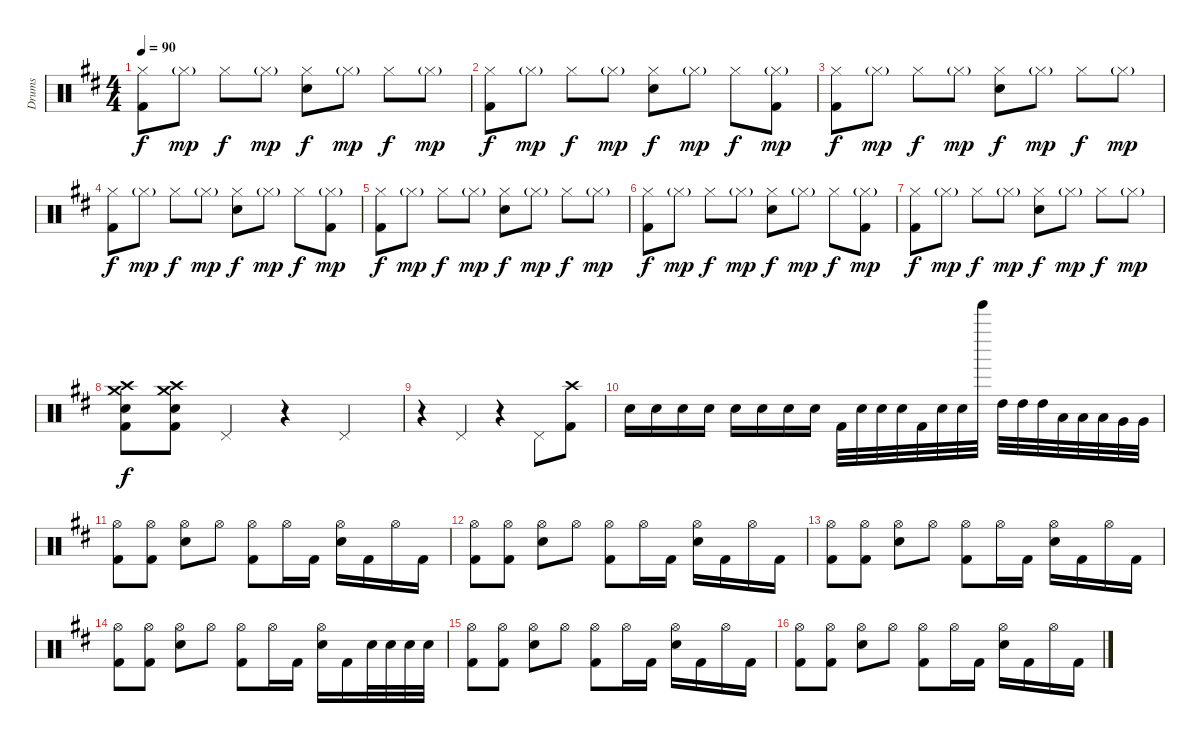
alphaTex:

\track ("Drums" "Drums") {instrument percussion}
\staff {score}
\articulation defaults
\ts (4 4)
\tempo 90
\clef neutral
\ks bminor
("Hi-Hat (closed)" "Kick (hit) 2").8{dy f} "Hi-Hat (closed)"{g}.8{dy mp} "Hi-Hat (closed)".8{dy f} "Hi-Hat (closed)"{g}.8{dy mp} ("Hi-Hat (closed)" "Snare (hit) 2").8{dy f} "Hi-Hat (closed)"{g}.8{dy mp} "Hi-Hat (closed)".8{dy f} "Hi-Hat (closed)"{g}.8{dy mp} |
("Hi-Hat (closed)" "Kick (hit) 2").8{dy f} "Hi-Hat (closed)"{g}.8{dy mp} "Hi-Hat (closed)".8{dy f} "Hi-Hat (closed)"{g}.8{dy mp} ("Hi-Hat (closed)" "Snare (hit) 2").8{dy f} "Hi-Hat (closed)"{g}.8{dy mp} "Hi-Hat (closed)".8{dy f} ("Hi-Hat (closed)"{g} "Kick (hit) 2").8{dy mp} |
("Hi-Hat (closed)" "Kick (hit) 2").8{dy f} "Hi-Hat (closed)"{g}.8{dy mp} "Hi-Hat (closed)".8{dy f} "Hi-Hat (closed)"{g}.8{dy mp} ("Hi-Hat (closed)" "Snare (hit) 2").8{dy f} "Hi-Hat (closed)"{g}.8{dy mp} "Hi-Hat (closed)".8{dy f} "Hi-Hat (closed)"{g}.8{dy mp} |
("Hi-Hat (closed)" "Kick (hit) 2").8{dy f} "Hi-Hat (closed)"{g}.8{dy mp} "Hi-Hat (closed)".8{dy f} "Hi-Hat (closed)"{g}.8{dy mp} ("Hi-Hat (closed)" "Snare (hit) 2").8{dy f} "Hi-Hat (closed)"{g}.8{dy mp} "Hi-Hat (closed)".8{dy f} ("Hi-Hat (closed)"{g} "Kick (hit) 2").8{dy mp} |
("Hi-Hat (closed)" "Kick (hit) 2").8{dy f} "Hi-Hat (closed)"{g}.8{dy mp} "Hi-Hat (closed)".8{dy f} "Hi-Hat (closed)"{g}.8{dy mp} ("Hi-Hat (closed)" "Snare (hit) 2").8{dy f} "Hi-Hat (closed)"{g}.8{dy mp} "Hi-Hat (closed)".8{dy f} "Hi-Hat (closed)"{g}.8{dy mp} |
("Hi-Hat (closed)" "Kick (hit) 2").8{dy f} "Hi-Hat (closed)"{g}.8{dy mp} "Hi-Hat (closed)".8{dy f} "Hi-Hat (closed)"{g}.8{dy mp} ("Hi-Hat (closed)" "Snare (hit) 2").8{dy f} "Hi-Hat (closed)"{g}.8{dy mp} "Hi-Hat (closed)".8{dy f} ("Hi-Hat (closed)"{g} "Kick (hit) 2").8{dy mp} |
("Hi-Hat (closed)" "Kick (hit) 2").8{dy f} "Hi-Hat (closed)"{g}.8{dy mp} "Hi-Hat (closed)".8{dy f} "Hi-Hat (closed)"{g}.8{dy mp} ("Hi-Hat (closed)" "Snare (hit) 2").8{dy f} "Hi-Hat (closed)"{g}.8{dy mp} "Hi-Hat (closed)".8{dy f} "Hi-Hat (closed)"{g}.8{dy mp} |
("Crash high (hit)" "Crash medium (hit)" "Snare (hit) 2" "Kick (hit) 2").8{dy f} ("Crash high (hit)" "Crash medium (hit)" "Snare (hit) 2" "Kick (hit) 2").8 "Pedal Hi-Hat (hit)".4 r.4 "Pedal Hi-Hat (hit)".4 |
r.4 "Pedal Hi-Hat (hit)".4 r.4 "Pedal Hi-Hat (hit)".8 ("Crash high (hit)" "Kick (hit) 2").8 |
"Snare (hit) 2".16 "Snare (hit) 2".16 "Snare (hit) 2".16 "Snare (hit) 2".16 "Snare (hit) 2".16 "Snare (hit) 2".16 "Snare (hit) 2".16 "Snare (hit) 2".16 "Kick (hit) 2".32 "Snare (hit) 2".32 "Snare (hit) 2".32 "Snare (hit) 2".32 "Kick (hit) 2".32 "Snare (hit) 2".32 "Snare (hit) 2".32 "Tinkle Bell (hit)".32 "High Tom (hit)".32 "High Tom (hit)".32 "High Tom (hit)".32 "Low Tom (hit)".32 "Low Tom (hit)".32 "Low Tom (hit)".32 "Very Low Tom (hit)".32 "Very Low Tom (hit)".32 |
("Hi-Hat (open)" "Kick (hit) 2").8 ("Hi-Hat (open)" "Kick (hit) 2").8 ("Hi-Hat (open)" "Snare (hit) 2").8 "Hi-Hat (open)".8 ("Hi-Hat (open)" "Kick (hit) 2").8 "Hi-Hat (open)".16 "Kick (hit) 2".16 ("Hi-Hat (open)" "Snare (hit) 2").16 "Kick (hit) 2".16 "Hi-Hat (open)".16 "Kick (hit) 2".16 |
("Hi-Hat (open)" "Kick (hit) 2").8 ("Hi-Hat (open)" "Kick (hit) 2").8 ("Hi-Hat (open)" "Snare (hit) 2").8 "Hi-Hat (open)".8 ("Hi-Hat (open)" "Kick (hit) 2").8 "Hi-Hat (open)".16 "Kick (hit) 2".16 ("Hi-Hat (open)" "Snare (hit) 2").16 "Kick (hit) 2".16 "Hi-Hat (open)".16 "Kick (hit) 2".16 |
("Hi-Hat (open)" "Kick (hit) 2").8 ("Hi-Hat (open)" "Kick (hit) 2").8 ("Hi-Hat (open)" "Snare (hit) 2").8 "Hi-Hat (open)".8 ("Hi-Hat (open)" "Kick (hit) 2").8 "Hi-Hat (open)".16 "Kick (hit) 2".16 ("Hi-Hat (open)" "Snare (hit) 2").16 "Kick (hit) 2".16 "Hi-Hat (open)".16 "Kick (hit) 2".16 |
("Hi-Hat (open)" "Kick (hit) 2").8 ("Hi-Hat (open)" "Kick (hit) 2").8 ("Hi-Hat (open)" "Snare (hit) 2").8 "Hi-Hat (open)".8 ("Hi-Hat (open)" "Kick (hit) 2").8 "Hi-Hat (open)".16 "Kick (hit) 2".16 ("Hi-Hat (open)" "Snare (hit) 2").16 "Kick (hit) 2".16 "Snare (hit) 2".32 "Snare (hit) 2".32 "Snare (hit) 2".32 "Snare (hit) 2".32 |
("Hi-Hat (open)" "Kick (hit) 2").8 ("Hi-Hat (open)" "Kick (hit) 2").8 ("Hi-Hat (open)" "Snare (hit) 2").8 "Hi-Hat (open)".8 ("Hi-Hat (open)" "Kick (hit) 2").8 "Hi-Hat (open)".16 "Kick (hit) 2".16 ("Hi-Hat (open)" "Snare (hit) 2").16 "Kick (hit) 2".16 "Hi-Hat (open)".16 "Kick (hit) 2".16 |
("Hi-Hat (open)" "Kick (hit) 2").8 ("Hi-Hat (open)" "Kick (hit) 2").8 ("Hi-Hat (open)" "Snare (hit) 2").8 "Hi-Hat (open)".8 ("Hi-Hat (open)" "Kick (hit) 2").8 "Hi-Hat (open)".16 "Kick (hit) 2".16 ("Hi-Hat (open)" "Snare (hit) 2").16 "Kick (hit) 2".16 "Hi-Hat (open)".16 "Kick (hit) 2".16
